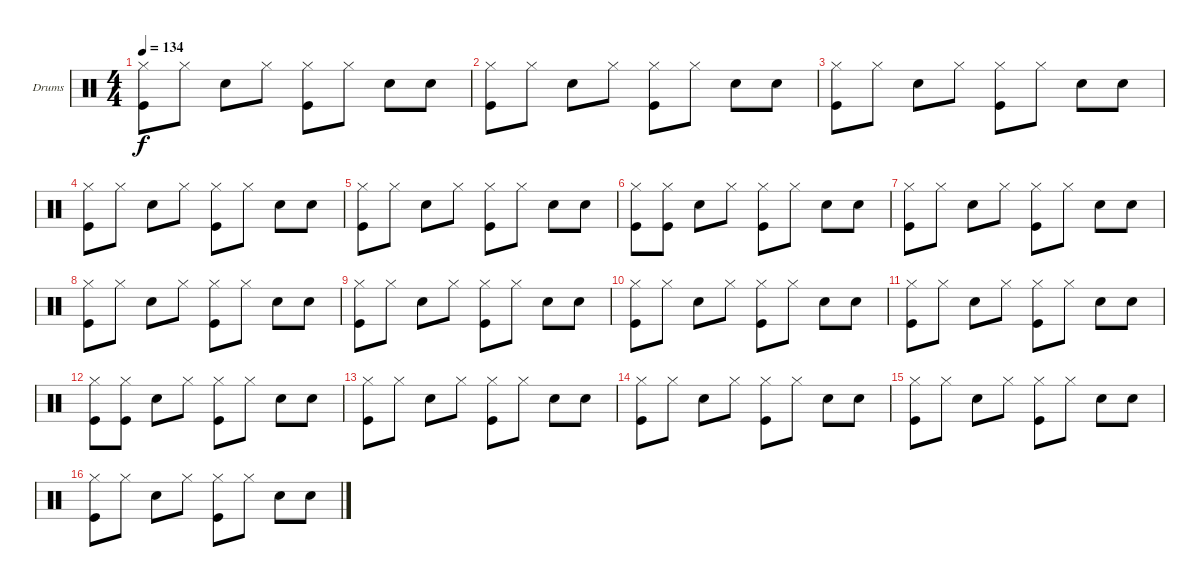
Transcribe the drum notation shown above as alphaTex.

\defaultSystemsLayout 4
\bracketExtendMode groupsimilarinstruments
\firstSystemTrackNameOrientation horizontal
\otherSystemsTrackNameOrientation horizontal
\track ("Гурьянов" "Drums") {instrument percussion}
\staff {score}
\articulation defaults
\ts (4 4)
\tempo 134
\clef neutral
\scale
0.333333
\ks c
("Hi-Hat (closed)" "Kick (hit)").8{dy f} "Hi-Hat (closed)".8 "Snare (hit) 2".8 "Hi-Hat (closed)".8 ("Hi-Hat (closed)" "Kick (hit)").8 "Hi-Hat (closed)".8 "Snare (hit) 2".8 "Snare (hit) 2".8 |
\scale
0.333333 ("Hi-Hat (closed)" "Kick (hit)").8 "Hi-Hat (closed)".8 "Snare (hit) 2".8 "Hi-Hat (closed)".8 ("Hi-Hat (closed)" "Kick (hit)").8 "Hi-Hat (closed)".8 "Snare (hit) 2".8 "Snare (hit) 2".8 |
\scale
0.333333 ("Hi-Hat (closed)" "Kick (hit)").8 "Hi-Hat (closed)".8 "Snare (hit) 2".8 "Hi-Hat (closed)".8 ("Hi-Hat (closed)" "Kick (hit)").8 "Hi-Hat (closed)".8 "Snare (hit) 2".8 "Snare (hit) 2".8 |
\scale
0.333333 ("Hi-Hat (closed)" "Kick (hit)").8 "Hi-Hat (closed)".8 "Snare (hit) 2".8 "Hi-Hat (closed)".8 ("Hi-Hat (closed)" "Kick (hit)").8 "Hi-Hat (closed)".8 "Snare (hit) 2".8 "Snare (hit) 2".8 |
\scale
0.333333 ("Hi-Hat (closed)" "Kick (hit)").8 "Hi-Hat (closed)".8 "Snare (hit) 2".8 "Hi-Hat (closed)".8 ("Hi-Hat (closed)" "Kick (hit)").8 "Hi-Hat (closed)".8 "Snare (hit) 2".8 "Snare (hit) 2".8 |
\scale
0.333333 ("Hi-Hat (closed)" "Kick (hit)").8 ("Hi-Hat (closed)" "Kick (hit)").8 "Snare (hit) 2".8 "Hi-Hat (closed)".8 ("Hi-Hat (closed)" "Kick (hit)").8 "Hi-Hat (closed)".8 "Snare (hit) 2".8 "Snare (hit) 2".8 |
\scale
0.333333 ("Hi-Hat (closed)" "Kick (hit)").8 "Hi-Hat (closed)".8 "Snare (hit) 2".8 "Hi-Hat (closed)".8 ("Hi-Hat (closed)" "Kick (hit)").8 "Hi-Hat (closed)".8 "Snare (hit) 2".8 "Snare (hit) 2".8 |
\scale
0.333333 ("Hi-Hat (closed)" "Kick (hit)").8 "Hi-Hat (closed)".8 "Snare (hit) 2".8 "Hi-Hat (closed)".8 ("Hi-Hat (closed)" "Kick (hit)").8 "Hi-Hat (closed)".8 "Snare (hit) 2".8 "Snare (hit) 2".8 |
\scale
0.333333 ("Hi-Hat (closed)" "Kick (hit)").8 "Hi-Hat (closed)".8 "Snare (hit) 2".8 "Hi-Hat (closed)".8 ("Hi-Hat (closed)" "Kick (hit)").8 "Hi-Hat (closed)".8 "Snare (hit) 2".8 "Snare (hit) 2".8 |
\scale
0.333333 ("Hi-Hat (closed)" "Kick (hit)").8 "Hi-Hat (closed)".8 "Snare (hit) 2".8 "Hi-Hat (closed)".8 ("Hi-Hat (closed)" "Kick (hit)").8 "Hi-Hat (closed)".8 "Snare (hit) 2".8 "Snare (hit) 2".8 |
\scale
0.333333 ("Hi-Hat (closed)" "Kick (hit)").8 "Hi-Hat (closed)".8 "Snare (hit) 2".8 "Hi-Hat (closed)".8 ("Hi-Hat (closed)" "Kick (hit)").8 "Hi-Hat (closed)".8 "Snare (hit) 2".8 "Snare (hit) 2".8 |
\scale
0.333333 ("Hi-Hat (closed)" "Kick (hit)").8 ("Hi-Hat (closed)" "Kick (hit)").8 "Snare (hit) 2".8 "Hi-Hat (closed)".8 ("Hi-Hat (closed)" "Kick (hit)").8 "Hi-Hat (closed)".8 "Snare (hit) 2".8 "Snare (hit) 2".8 |
\scale
0.333333 ("Hi-Hat (closed)" "Kick (hit)").8 "Hi-Hat (closed)".8 "Snare (hit) 2".8 "Hi-Hat (closed)".8 ("Hi-Hat (closed)" "Kick (hit)").8 "Hi-Hat (closed)".8 "Snare (hit) 2".8 "Snare (hit) 2".8 |
\scale
0.333333 ("Hi-Hat (closed)" "Kick (hit)").8 "Hi-Hat (closed)".8 "Snare (hit) 2".8 "Hi-Hat (closed)".8 ("Hi-Hat (closed)" "Kick (hit)").8 "Hi-Hat (closed)".8 "Snare (hit) 2".8 "Snare (hit) 2".8 |
\scale
0.333333 ("Hi-Hat (closed)" "Kick (hit)").8 "Hi-Hat (closed)".8 "Snare (hit) 2".8 "Hi-Hat (closed)".8 ("Hi-Hat (closed)" "Kick (hit)").8 "Hi-Hat (closed)".8 "Snare (hit) 2".8 "Snare (hit) 2".8 |
\scale
0.333333 ("Hi-Hat (closed)" "Kick (hit)").8 "Hi-Hat (closed)".8 "Snare (hit) 2".8 "Hi-Hat (closed)".8 ("Hi-Hat (closed)" "Kick (hit)").8 "Hi-Hat (closed)".8 "Snare (hit) 2".8 "Snare (hit) 2".8
